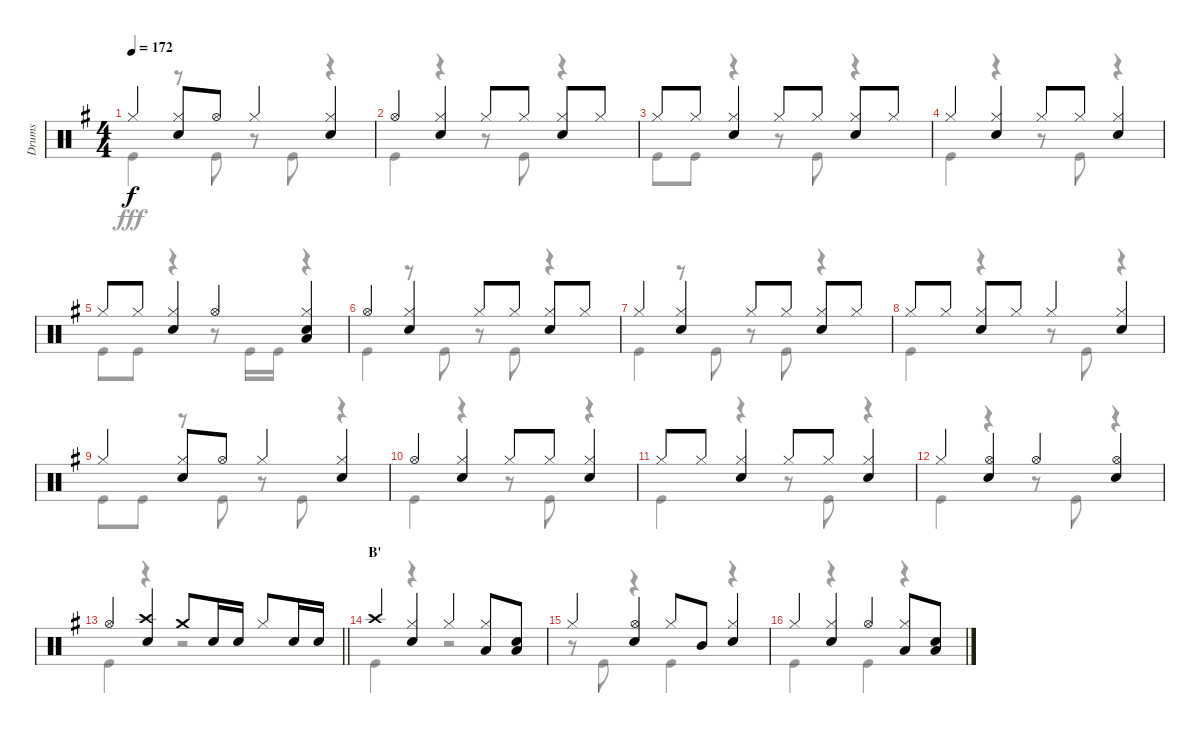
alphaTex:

\track ("Drums" "Drums") {instrument percussion}
\staff {score}
\articulation defaults
\voice
\ts (4 4)
\tempo 172
\clef neutral
\ks g "Hi-Hat (closed)".4{dy f}
("Hi-Hat (closed)" "Snare (hit) 2").8 "Hi-Hat (open)".8 "Hi-Hat (closed)".4 ("Hi-Hat (closed)" "Snare (hit) 2").4 |
"Hi-Hat (open)".4 ("Hi-Hat (closed)" "Snare (hit) 2").4 "Hi-Hat (closed)".8 "Hi-Hat (closed)".8 ("Hi-Hat (closed)" "Snare (hit) 2").8 "Hi-Hat (closed)".8 |
"Hi-Hat (closed)".8 "Hi-Hat (closed)".8 ("Hi-Hat (closed)" "Snare (hit) 2").4 "Hi-Hat (closed)".8 "Hi-Hat (closed)".8 ("Hi-Hat (closed)" "Snare (hit) 2").8 "Hi-Hat (closed)".8 |
"Hi-Hat (closed)".4 ("Hi-Hat (closed)" "Snare (hit) 2").4 "Hi-Hat (closed)".8 "Hi-Hat (closed)".8 ("Hi-Hat (closed)" "Snare (hit) 2").4 |
"Hi-Hat (closed)".8 "Hi-Hat (closed)".8 ("Hi-Hat (closed)" "Snare (hit) 2").4 "Hi-Hat (open)".4 ("Hi-Hat (closed)" "Snare (hit) 2" "Low Tom (hit)").4 |
"Hi-Hat (open)".4 ("Hi-Hat (closed)" "Snare (hit) 2").4 "Hi-Hat (closed)".8 "Hi-Hat (closed)".8 ("Hi-Hat (closed)" "Snare (hit) 2").8 "Hi-Hat (closed)".8 |
"Hi-Hat (closed)".4 ("Hi-Hat (closed)" "Snare (hit) 2").4 "Hi-Hat (closed)".8 "Hi-Hat (closed)".8 ("Hi-Hat (closed)" "Snare (hit) 2").8 "Hi-Hat (closed)".8 |
"Hi-Hat (closed)".8 "Hi-Hat (closed)".8 ("Hi-Hat (closed)" "Snare (hit) 2").8 "Hi-Hat (closed)".8 "Hi-Hat (closed)".4 ("Hi-Hat (closed)" "Snare (hit) 2").4 |
"Hi-Hat (closed)".4 ("Hi-Hat (closed)" "Snare (hit) 2").8 "Hi-Hat (open)".8 "Hi-Hat (closed)".4 ("Hi-Hat (closed)" "Snare (hit) 2").4 |
"Hi-Hat (open)".4 ("Hi-Hat (closed)" "Snare (hit) 2").4 "Hi-Hat (closed)".8 "Hi-Hat (closed)".8 ("Hi-Hat (closed)" "Snare (hit) 2").4 |
"Hi-Hat (closed)".8 "Hi-Hat (closed)".8 ("Hi-Hat (closed)" "Snare (hit) 2").4 "Hi-Hat (closed)".8 "Hi-Hat (closed)".8 ("Hi-Hat (closed)" "Snare (hit) 2").4 |
"Hi-Hat (closed)".4 ("Hi-Hat (open)" "Snare (hit) 2").4 "Hi-Hat (open)".4 ("Hi-Hat (open)" "Snare (hit) 2").4 |
\barLineRight lightlight "Hi-Hat (open)".4
("Crash high (hit)" "Snare (hit) 2").4 "Crash medium (hit)".8 "Snare (hit) 2".16 "Snare (hit) 2".16 "Hi-Hat (closed)".8 "Snare (hit) 2".16 "Snare (hit) 2".16 |
\section ("" "B'")
"Crash high (hit)".4 ("Hi-Hat (closed)" "Snare (hit) 2").4 "Hi-Hat (closed)".4 ("Hi-Hat (closed)" "Low Tom (hit)").8 ("Snare (hit) 2" "Low Tom (hit)").8 |
"Hi-Hat (closed)".4 ("Hi-Hat (open)" "Snare (hit) 2").4 "Hi-Hat (closed)".8 "Mid Tom (hit)".8 ("Hi-Hat (closed)" "Snare (hit) 2").4 |
"Hi-Hat (closed)".4 ("Hi-Hat (closed)" "Snare (hit) 2").4 "Hi-Hat (open)".4 ("Hi-Hat (closed)" "Low Tom (hit)").8 ("Snare (hit) 2" "Low Tom (hit)").8
\voice
\clef neutral
\ottava regular
\simile none
\ks g "Kick (hit)".4{dy fff}
r.8 "Kick (hit)".8 r.8 "Kick (hit)".8 r.4 |
"Kick (hit)".4 r.4 r.8 "Kick (hit)".8 r.4 |
"Kick (hit)".8 "Kick (hit)".8 r.4 r.8 "Kick (hit)".8 r.4 |
"Kick (hit)".4 r.4 r.8 "Kick (hit)".8 r.4 |
"Kick (hit)".8 "Kick (hit)".8 r.4 r.8 "Kick (hit)".16 "Kick (hit)".16 r.4 |
"Kick (hit)".4 r.8 "Kick (hit)".8 r.8 "Kick (hit)".8 r.4 |
"Kick (hit)".4 r.8 "Kick (hit)".8 r.8 "Kick (hit)".8 r.4 |
"Kick (hit)".4 r.4 r.8 "Kick (hit)".8 r.4 |
"Kick (hit)".8 "Kick (hit)".8 r.8 "Kick (hit)".8 r.8 "Kick (hit)".8 r.4 |
"Kick (hit)".4 r.4 r.8 "Kick (hit)".8 r.4 |
"Kick (hit)".4 r.4 r.8 "Kick (hit)".8 r.4 |
"Kick (hit)".4 r.4 r.8 "Kick (hit)".8 r.4 |
\barLineRight lightlight "Kick (hit)".4
r.4 r.2 |
"Kick (hit)".4 r.4 r.2 |
r.8 "Kick (hit)".8 r.4 "Kick (hit)".4 r.4 |
"Kick (hit)".4 r.4 "Kick (hit)".4 r.4
